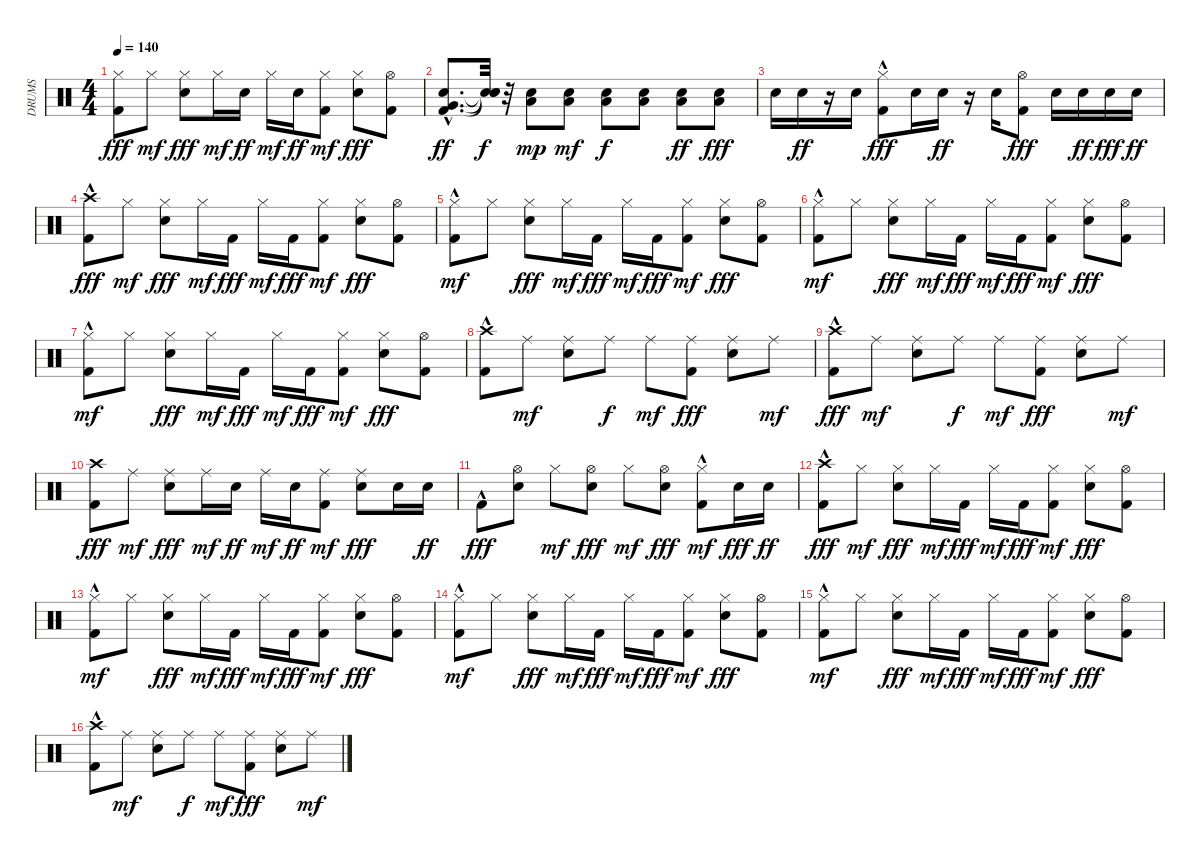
\track ("DRUMS" "DRUMS") {instrument percussion}
\staff {score}
\articulation defaults
\ts (4 4)
\tempo 140
\clef neutral
\ks c
("Kick (hit) 2" "Hi-Hat (closed)").8{dy fff} "Hi-Hat (closed)".8{dy mf} ("Hi-Hat (closed)" "Electric Snare (hit)").8{dy fff} "Hi-Hat (closed)".16{dy mf} "Electric Snare (hit)".16{dy ff} "Hi-Hat (closed)".16{dy mf} "Electric Snare (hit)".16{dy ff} ("Kick (hit) 2" "Hi-Hat (closed)").8{dy mf} ("Hi-Hat (closed)" "Electric Snare (hit)").8{dy fff} ("Kick (hit) 2" "Hi-Hat (open)").8 |
("Kick (hit) 2"{hac} "Electric Snare (hit)"{hac} "Very Low Tom (hit)"{hac}).8{d dy ff} ("Snare (hit)"{t} "Snare (hit)"{t} "Snare (hit)"{t}).32{dy f} r.32 ("Low Tom (hit)" "Electric Snare (hit)").8{dy mp} ("Low Tom (hit)" "Electric Snare (hit)").8{dy mf} ("Low Tom (hit)" "Electric Snare (hit)").8{dy f} ("Low Tom (hit)" "Electric Snare (hit)").8 ("Low Tom (hit)" "Electric Snare (hit)").8{dy ff} ("Low Tom (hit)" "Electric Snare (hit)").8{dy fff} |
"Electric Snare (hit)".16 "Electric Snare (hit)".16{dy ff} r.16 "Electric Snare (hit)".16 ("Kick (hit) 2"{hac} "Hi-Hat (closed)").8{dy fff} "Electric Snare (hit)".16 "Electric Snare (hit)".16{dy ff} r.16 "Electric Snare (hit)".16 ("Kick (hit) 2" "Hi-Hat (open)").8{dy fff} "Electric Snare (hit)".16 "Electric Snare (hit)".16{dy ff} "Electric Snare (hit)".16{dy fff} "Electric Snare (hit)".16{dy ff} |
("Kick (hit) 2"{hac} "Crash high (hit)").8{dy fff} "Hi-Hat (closed)".8{dy mf} ("Electric Snare (hit)" "Hi-Hat (closed)").8{dy fff} "Hi-Hat (closed)".16{dy mf} "Kick (hit) 2".16{dy fff} "Hi-Hat (closed)".16{dy mf} "Kick (hit) 2".16{dy fff} ("Kick (hit) 2" "Hi-Hat (closed)").8{dy mf} ("Electric Snare (hit)" "Hi-Hat (closed)").8{dy fff} ("Kick (hit) 2" "Hi-Hat (open)").8 |
("Kick (hit) 2"{hac} "Hi-Hat (closed)").8{dy mf} "Hi-Hat (closed)".8 ("Electric Snare (hit)" "Hi-Hat (closed)").8{dy fff} "Hi-Hat (closed)".16{dy mf} "Kick (hit) 2".16{dy fff} "Hi-Hat (closed)".16{dy mf} "Kick (hit) 2".16{dy fff} ("Kick (hit) 2" "Hi-Hat (closed)").8{dy mf} ("Electric Snare (hit)" "Hi-Hat (closed)").8{dy fff} ("Kick (hit) 2" "Hi-Hat (open)").8 |
("Kick (hit) 2"{hac} "Hi-Hat (closed)").8{dy mf} "Hi-Hat (closed)".8 ("Electric Snare (hit)" "Hi-Hat (closed)").8{dy fff} "Hi-Hat (closed)".16{dy mf} "Kick (hit) 2".16{dy fff} "Hi-Hat (closed)".16{dy mf} "Kick (hit) 2".16{dy fff} ("Kick (hit) 2" "Hi-Hat (closed)").8{dy mf} ("Electric Snare (hit)" "Hi-Hat (closed)").8{dy fff} ("Kick (hit) 2" "Hi-Hat (open)").8 |
("Kick (hit) 2"{hac} "Hi-Hat (closed)").8{dy mf} "Hi-Hat (closed)".8 ("Electric Snare (hit)" "Hi-Hat (closed)").8{dy fff} "Hi-Hat (closed)".16{dy mf} "Kick (hit) 2".16{dy fff} "Hi-Hat (closed)".16{dy mf} "Kick (hit) 2".16{dy fff} ("Kick (hit) 2" "Hi-Hat (closed)").8{dy mf} ("Electric Snare (hit)" "Hi-Hat (closed)").8{dy fff} ("Kick (hit) 2" "Hi-Hat (open)").8 |
("Kick (hit) 2"{hac} "Crash high (hit)").8 "Ride (middle)".8{dy mf} ("Electric Snare (hit)" "Ride (middle)").8 "Ride (middle)".8{dy f} "Ride (middle)".8{dy mf} ("Ride (middle)" "Kick (hit) 2").8{dy fff} ("Electric Snare (hit)" "Ride (middle)").8 "Ride (middle)".8{dy mf} |
("Kick (hit) 2"{hac} "Crash high (hit)").8{dy fff} "Ride (middle)".8{dy mf} ("Electric Snare (hit)" "Ride (middle)").8 "Ride (middle)".8{dy f} "Ride (middle)".8{dy mf} ("Ride (middle)" "Kick (hit) 2").8{dy fff} ("Electric Snare (hit)" "Ride (middle)").8 "Ride (middle)".8{dy mf} |
("Kick (hit) 2" "Crash high (hit)").8{dy fff} "Ride (middle)".8{dy mf} ("Ride (middle)" "Electric Snare (hit)").8{dy fff} "Ride (middle)".16{dy mf} "Electric Snare (hit)".16{dy ff} "Ride (middle)".16{dy mf} "Electric Snare (hit)".16{dy ff} ("Kick (hit) 2" "Ride (middle)").8{dy mf} ("Ride (middle)" "Electric Snare (hit)").8{dy fff} "Electric Snare (hit)".16 "Electric Snare (hit)".16{dy ff} |
"Kick (hit) 2"{hac}.8{dy fff} ("Electric Snare (hit)" "Hi-Hat (open)").8 "Hi-Hat (closed)".8{dy mf} ("Electric Snare (hit)" "Hi-Hat (open)").8{dy fff} "Hi-Hat (closed)".8{dy mf} ("Electric Snare (hit)" "Hi-Hat (open)").8{dy fff} ("Kick (hit) 2"{hac} "Hi-Hat (closed)").8{dy mf} "Electric Snare (hit)".16{dy fff} "Electric Snare (hit)".16{dy ff} |
("Kick (hit) 2"{hac} "Crash high (hit)").8{dy fff} "Hi-Hat (closed)".8{dy mf} ("Electric Snare (hit)" "Hi-Hat (closed)").8{dy fff} "Hi-Hat (closed)".16{dy mf} "Kick (hit) 2".16{dy fff} "Hi-Hat (closed)".16{dy mf} "Kick (hit) 2".16{dy fff} ("Kick (hit) 2" "Hi-Hat (closed)").8{dy mf} ("Electric Snare (hit)" "Hi-Hat (closed)").8{dy fff} ("Kick (hit) 2" "Hi-Hat (open)").8 |
("Kick (hit) 2"{hac} "Hi-Hat (closed)").8{dy mf} "Hi-Hat (closed)".8 ("Electric Snare (hit)" "Hi-Hat (closed)").8{dy fff} "Hi-Hat (closed)".16{dy mf} "Kick (hit) 2".16{dy fff} "Hi-Hat (closed)".16{dy mf} "Kick (hit) 2".16{dy fff} ("Kick (hit) 2" "Hi-Hat (closed)").8{dy mf} ("Electric Snare (hit)" "Hi-Hat (closed)").8{dy fff} ("Kick (hit) 2" "Hi-Hat (open)").8 |
("Kick (hit) 2"{hac} "Hi-Hat (closed)").8{dy mf} "Hi-Hat (closed)".8 ("Electric Snare (hit)" "Hi-Hat (closed)").8{dy fff} "Hi-Hat (closed)".16{dy mf} "Kick (hit) 2".16{dy fff} "Hi-Hat (closed)".16{dy mf} "Kick (hit) 2".16{dy fff} ("Kick (hit) 2" "Hi-Hat (closed)").8{dy mf} ("Electric Snare (hit)" "Hi-Hat (closed)").8{dy fff} ("Kick (hit) 2" "Hi-Hat (open)").8 |
("Kick (hit) 2"{hac} "Hi-Hat (closed)").8{dy mf} "Hi-Hat (closed)".8 ("Electric Snare (hit)" "Hi-Hat (closed)").8{dy fff} "Hi-Hat (closed)".16{dy mf} "Kick (hit) 2".16{dy fff} "Hi-Hat (closed)".16{dy mf} "Kick (hit) 2".16{dy fff} ("Kick (hit) 2" "Hi-Hat (closed)").8{dy mf} ("Electric Snare (hit)" "Hi-Hat (closed)").8{dy fff} ("Kick (hit) 2" "Hi-Hat (open)").8 |
("Kick (hit) 2"{hac} "Crash high (hit)").8 "Ride (middle)".8{dy mf} ("Electric Snare (hit)" "Ride (middle)").8 "Ride (middle)".8{dy f} "Ride (middle)".8{dy mf} ("Ride (middle)" "Kick (hit) 2").8{dy fff} ("Electric Snare (hit)" "Ride (middle)").8 "Ride (middle)".8{dy mf}
